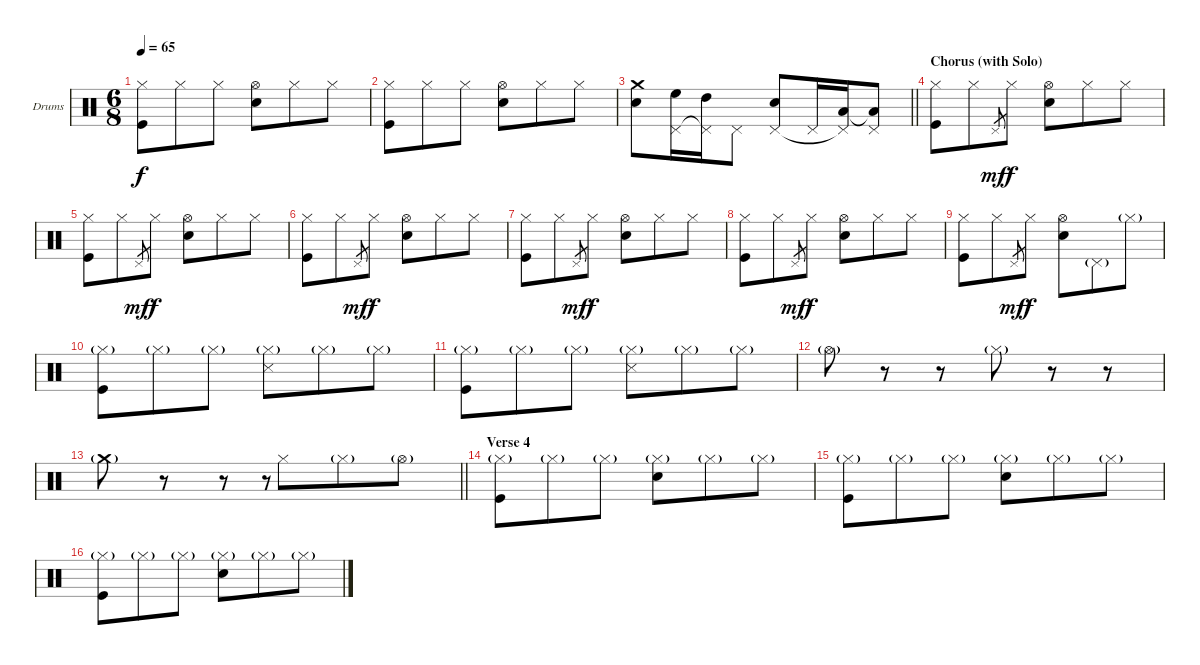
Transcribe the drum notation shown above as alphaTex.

\bracketExtendMode groupsimilarinstruments
\firstSystemTrackNameOrientation horizontal
\otherSystemsTrackNameOrientation horizontal
\track ("Drumkit" "Drums") {instrument percussion}
\staff {score}
\articulation defaults
\ts (6 8)
\tempo 65
\clef neutral
\ks c
("Hi-Hat (closed)" "Kick (hit)").8{dy f} "Hi-Hat (closed)".8 "Hi-Hat (closed)".8 ("Hi-Hat (open)" "Snare (hit) 2").8 "Hi-Hat (closed)".8 "Hi-Hat (closed)".8 |
("Hi-Hat (closed)" "Kick (hit)").8 "Hi-Hat (closed)".8 "Hi-Hat (closed)".8 ("Hi-Hat (open)" "Snare (hit) 2").8 "Hi-Hat (closed)".8 "Hi-Hat (closed)".8 |
\barLineRight lightlight
("Crash medium (hit)" "Snare (hit) 2").8 ("High Floor Tom (hit)" "Pedal Hi-Hat (hit)").16 ("High Tom (hit)" "Pedal Hi-Hat (hit)"{t}).16 "Pedal Hi-Hat (hit)".8 ("Snare (hit) 2" "Pedal Hi-Hat (hit)").8 "Pedal Hi-Hat (hit)".16 ("Low Tom (hit)" "Pedal Hi-Hat (hit)"{t}).16 ("Low Tom (hit)"{t} "Pedal Hi-Hat (hit)").8 |
\section ("" "Chorus (with Solo)")
("Hi-Hat (closed)" "Kick (hit)").8 "Hi-Hat (closed)".8 "Pedal Hi-Hat (hit)".8{gr dy mf} "Hi-Hat (closed)".8{dy f} ("Hi-Hat (open)" "Snare (hit) 2").8 "Hi-Hat (closed)".8 "Hi-Hat (closed)".8 |
("Hi-Hat (closed)" "Kick (hit)").8 "Hi-Hat (closed)".8 "Pedal Hi-Hat (hit)".8{gr dy mf} "Hi-Hat (closed)".8{dy f} ("Hi-Hat (open)" "Snare (hit) 2").8 "Hi-Hat (closed)".8 "Hi-Hat (closed)".8 |
("Hi-Hat (closed)" "Kick (hit)").8 "Hi-Hat (closed)".8 "Pedal Hi-Hat (hit)".8{gr dy mf} "Hi-Hat (closed)".8{dy f} ("Hi-Hat (open)" "Snare (hit) 2").8 "Hi-Hat (closed)".8 "Hi-Hat (closed)".8 |
("Hi-Hat (closed)" "Kick (hit)").8 "Hi-Hat (closed)".8 "Pedal Hi-Hat (hit)".8{gr dy mf} "Hi-Hat (closed)".8{dy f} ("Hi-Hat (open)" "Snare (hit) 2").8 "Hi-Hat (closed)".8 "Hi-Hat (closed)".8 |
("Hi-Hat (closed)" "Kick (hit)").8 "Hi-Hat (closed)".8 "Pedal Hi-Hat (hit)".8{gr dy mf} "Hi-Hat (closed)".8{dy f} ("Hi-Hat (open)" "Snare (hit) 2").8 "Hi-Hat (closed)".8 "Hi-Hat (closed)".8 |
("Hi-Hat (closed)" "Kick (hit)").8 "Hi-Hat (closed)".8 "Pedal Hi-Hat (hit)".8{gr dy mf} "Hi-Hat (closed)".8{dy f} ("Hi-Hat (open)" "Snare (hit) 2").8 "Pedal Hi-Hat (hit)"{g}.8 "Hi-Hat (closed)"{g}.8 |
("Hi-Hat (closed)"{g} "Kick (hit)").8 "Hi-Hat (closed)"{g}.8 "Hi-Hat (closed)"{g}.8 ("Hi-Hat (closed)"{g} "Snare (side stick) 3").8 "Hi-Hat (closed)"{g}.8 "Hi-Hat (closed)"{g}.8 |
("Hi-Hat (closed)"{g} "Kick (hit)").8 "Hi-Hat (closed)"{g}.8 "Hi-Hat (closed)"{g}.8 ("Hi-Hat (closed)"{g} "Snare (side stick) 3").8 "Hi-Hat (closed)"{g}.8 "Hi-Hat (closed)"{g}.8 |
"Hi-Hat (open)"{g}.8 r.8 r.8 "Hi-Hat (closed)"{g}.8 r.8 r.8 |
\barLineRight lightlight "Crash medium (hit)"{g}.8
r.8 r.8 r.8{gr} "Hi-Hat (closed)".8 "Hi-Hat (closed)"{g}.8 "Hi-Hat (open)"{g}.8 |
\section ("" "Verse 4")
("Hi-Hat (closed)"{g} "Kick (hit)").8 "Hi-Hat (closed)"{g}.8 "Hi-Hat (closed)"{g}.8 ("Hi-Hat (closed)"{g} "Snare (hit) 2").8 "Hi-Hat (closed)"{g}.8 "Hi-Hat (closed)"{g}.8 |
("Hi-Hat (closed)"{g} "Kick (hit)").8 "Hi-Hat (closed)"{g}.8 "Hi-Hat (closed)"{g}.8 ("Hi-Hat (closed)"{g} "Snare (hit) 2").8 "Hi-Hat (closed)"{g}.8 "Hi-Hat (closed)"{g}.8 |
("Hi-Hat (closed)"{g} "Kick (hit)").8 "Hi-Hat (closed)"{g}.8 "Hi-Hat (closed)"{g}.8 ("Hi-Hat (closed)"{g} "Snare (hit) 2").8 "Hi-Hat (closed)"{g}.8 "Hi-Hat (closed)"{g}.8
